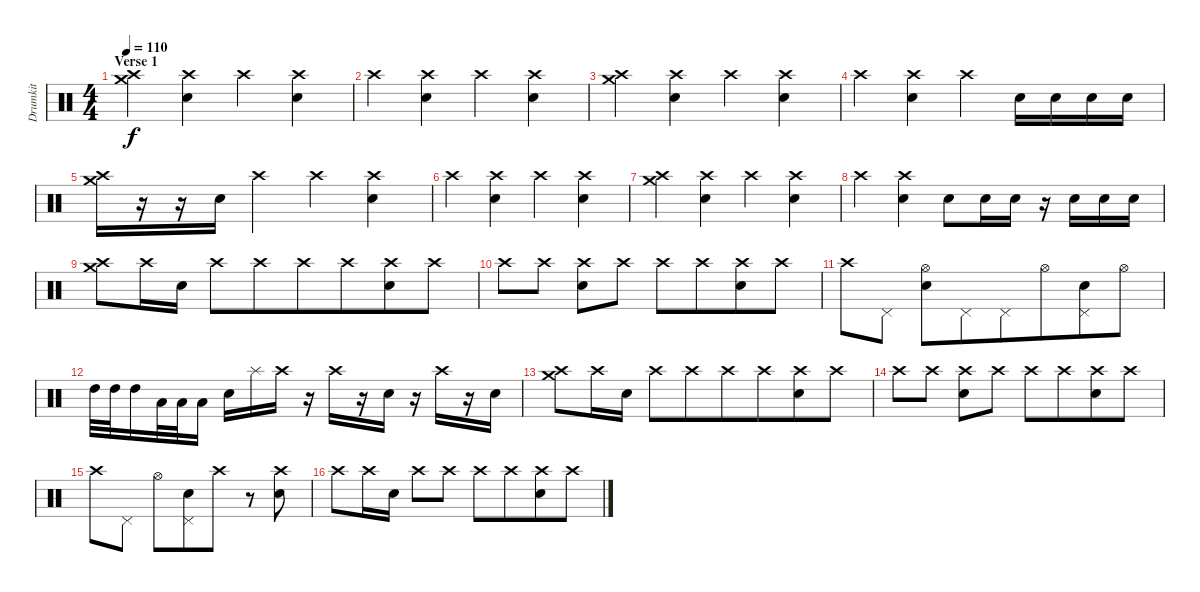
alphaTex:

\track ("Drumkit" "Drumkit") {instrument percussion}
\staff {score}
\articulation defaults
\ts (4 4)
\section ("" "Verse 1")
\tempo 110
\clef neutral
\ks c
("Crash medium (hit)" "Crash high (hit)").4{dy f beam merge} ("Crash high (hit)" "Electric Snare (hit)").4 "Crash high (hit)".4 ("Crash high (hit)" "Electric Snare (hit)").4 |
"Crash high (hit)".4 ("Crash high (hit)" "Electric Snare (hit)").4{beam merge} "Crash high (hit)".4 ("Crash high (hit)" "Electric Snare (hit)").4 |
("Crash medium (hit)" "Crash high (hit)").4{beam merge} ("Crash high (hit)" "Electric Snare (hit)").4 "Crash high (hit)".4 ("Crash high (hit)" "Electric Snare (hit)").4 |
"Crash high (hit)".4 ("Crash high (hit)" "Electric Snare (hit)").4{beam merge} "Crash high (hit)".4 "Electric Snare (hit)".16 "Electric Snare (hit)".16 "Electric Snare (hit)".16 "Electric Snare (hit)".16 |
("Crash medium (hit)" "Crash high (hit)").16 r.16 r.16{beam merge} "Electric Snare (hit)".16{beam merge} "Crash high (hit)".4 "Crash high (hit)".4 ("Crash high (hit)" "Electric Snare (hit)").4 |
"Crash high (hit)".4 ("Crash high (hit)" "Electric Snare (hit)").4{beam merge} "Crash high (hit)".4 ("Crash high (hit)" "Electric Snare (hit)").4 |
("Crash medium (hit)" "Crash high (hit)").4{beam merge} ("Crash high (hit)" "Electric Snare (hit)").4 "Crash high (hit)".4 ("Crash high (hit)" "Electric Snare (hit)").4 |
"Crash high (hit)".4 ("Crash high (hit)" "Electric Snare (hit)").4{beam merge} "Electric Snare (hit)".8 "Electric Snare (hit)".16 "Electric Snare (hit)".16 r.16 "Electric Snare (hit)".16 "Electric Snare (hit)".16 "Electric Snare (hit)".16 |
("Crash medium (hit)" "Crash high (hit)").8 "Crash high (hit)".16{beam merge} "Electric Snare (hit)".16 "Crash high (hit)".8 "Crash high (hit)".8{beam merge} "Crash high (hit)".8 "Crash high (hit)".8{beam merge} ("Crash high (hit)" "Electric Snare (hit)").8{beam merge} "Crash high (hit)".8 |
"Crash high (hit)".8 "Crash high (hit)".8 ("Crash high (hit)" "Electric Snare (hit)").8 "Crash high (hit)".8 "Crash high (hit)".8 "Crash high (hit)".8{beam merge} ("Crash high (hit)" "Electric Snare (hit)").8 "Crash high (hit)".8 |
"Crash high (hit)".8 "Pedal Hi-Hat (hit)".8 ("Hi-Hat (open)" "Electric Snare (hit)").8 "Pedal Hi-Hat (hit)".8{beam merge} "Pedal Hi-Hat (hit)".8 "Hi-Hat (open)".8{beam merge} ("Pedal Hi-Hat (hit)" "Electric Snare (hit)").8 "Hi-Hat (open)".8 |
"High Tom (hit)".32 "High Tom (hit)".32 "High Tom (hit)".16 "Low Floor Tom (hit)".32{beam merge} "Low Floor Tom (hit)".32 "Low Floor Tom (hit)".16 "Electric Snare (hit)".16 "Splash (hit)".16 "Crash high (hit)".16 r.16 "Crash high (hit)".16{beam merge} r.16 "Electric Snare (hit)".16 r.16 "Crash high (hit)".16{beam merge} r.16 "Electric Snare (hit)".16 |
("Crash medium (hit)" "Crash high (hit)").8 "Crash high (hit)".16{beam merge} "Electric Snare (hit)".16 "Crash high (hit)".8 "Crash high (hit)".8{beam merge} "Crash high (hit)".8 "Crash high (hit)".8{beam merge} ("Crash high (hit)" "Electric Snare (hit)").8{beam merge} "Crash high (hit)".8 |
"Crash high (hit)".8 "Crash high (hit)".8 ("Crash high (hit)" "Electric Snare (hit)").8 "Crash high (hit)".8 "Crash high (hit)".8 "Crash high (hit)".8{beam merge} ("Crash high (hit)" "Electric Snare (hit)").8 "Crash high (hit)".8 |
"Crash high (hit)".8 "Pedal Hi-Hat (hit)".8 "Hi-Hat (open)".8 ("Pedal Hi-Hat (hit)" "Electric Snare (hit)").8{beam merge} "Crash high (hit)".8 r.8{beam merge} ("Crash high (hit)" "Electric Snare (hit)").8 |
"Crash high (hit)".8 "Crash high (hit)".16 "Electric Snare (hit)".16 "Crash high (hit)".8 "Crash high (hit)".8 "Crash high (hit)".8 "Crash high (hit)".8{beam merge} ("Crash high (hit)" "Electric Snare (hit)").8 "Crash high (hit)".8
